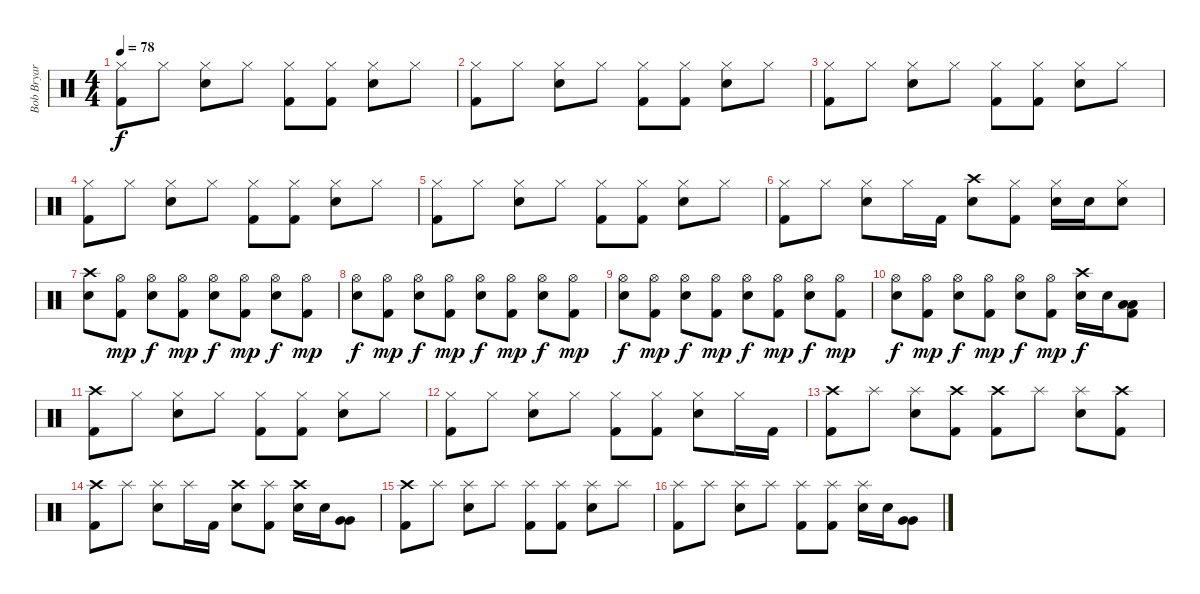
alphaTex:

\track ("Bob Bryar [Drums]" "Bob Bryar ") {instrument percussion}
\staff {score}
\articulation defaults
\ts (4 4)
\tempo 78
\clef neutral
\ks c
("Hi-Hat (closed)" "Kick (hit) 2").8{dy f} "Hi-Hat (closed)".8 ("Hi-Hat (closed)" "Electric Snare (hit)").8 "Hi-Hat (closed)".8 ("Hi-Hat (closed)" "Kick (hit) 2").8 ("Hi-Hat (closed)" "Kick (hit) 2").8 ("Hi-Hat (closed)" "Electric Snare (hit)").8 "Hi-Hat (closed)".8 |
("Hi-Hat (closed)" "Kick (hit) 2").8 "Hi-Hat (closed)".8 ("Hi-Hat (closed)" "Electric Snare (hit)").8 "Hi-Hat (closed)".8 ("Hi-Hat (closed)" "Kick (hit) 2").8 ("Hi-Hat (closed)" "Kick (hit) 2").8 ("Hi-Hat (closed)" "Electric Snare (hit)").8 "Hi-Hat (closed)".8 |
("Hi-Hat (closed)" "Kick (hit) 2").8 "Hi-Hat (closed)".8 ("Hi-Hat (closed)" "Electric Snare (hit)").8 "Hi-Hat (closed)".8 ("Hi-Hat (closed)" "Kick (hit) 2").8 ("Hi-Hat (closed)" "Kick (hit) 2").8 ("Hi-Hat (closed)" "Electric Snare (hit)").8 "Hi-Hat (closed)".8 |
("Hi-Hat (closed)" "Kick (hit) 2").8 "Hi-Hat (closed)".8 ("Hi-Hat (closed)" "Electric Snare (hit)").8 "Hi-Hat (closed)".8 ("Hi-Hat (closed)" "Kick (hit) 2").8 ("Hi-Hat (closed)" "Kick (hit) 2").8 ("Hi-Hat (closed)" "Electric Snare (hit)").8 "Hi-Hat (closed)".8 |
("Hi-Hat (closed)" "Kick (hit) 2").8 "Hi-Hat (closed)".8 ("Hi-Hat (closed)" "Electric Snare (hit)").8 "Hi-Hat (closed)".8 ("Hi-Hat (closed)" "Kick (hit) 2").8 ("Hi-Hat (closed)" "Kick (hit) 2").8 ("Hi-Hat (closed)" "Electric Snare (hit)").8 "Hi-Hat (closed)".8 |
("Hi-Hat (closed)" "Kick (hit) 2").8 "Hi-Hat (closed)".8 ("Hi-Hat (closed)" "Electric Snare (hit)").8 "Hi-Hat (closed)".16 "Kick (hit) 2".16 ("Crash high (hit)" "Electric Snare (hit)").8 ("Hi-Hat (closed)" "Kick (hit) 2").8 ("Hi-Hat (closed)" "Electric Snare (hit)").16 "Electric Snare (hit)".16 ("Hi-Hat (closed)" "Electric Snare (hit)").8 |
("Crash high (hit)" "Electric Snare (hit)").8 ("Hi-Hat (open)" "Kick (hit) 2").8{dy mp} ("Hi-Hat (open)" "Electric Snare (hit)").8{dy f} ("Hi-Hat (open)" "Kick (hit) 2").8{dy mp} ("Hi-Hat (open)" "Electric Snare (hit)").8{dy f} ("Hi-Hat (open)" "Kick (hit) 2").8{dy mp} ("Hi-Hat (open)" "Electric Snare (hit)").8{dy f} ("Hi-Hat (open)" "Kick (hit) 2").8{dy mp} |
("Hi-Hat (open)" "Electric Snare (hit)").8{dy f} ("Hi-Hat (open)" "Kick (hit) 2").8{dy mp} ("Hi-Hat (open)" "Electric Snare (hit)").8{dy f} ("Hi-Hat (open)" "Kick (hit) 2").8{dy mp} ("Hi-Hat (open)" "Electric Snare (hit)").8{dy f} ("Hi-Hat (open)" "Kick (hit) 2").8{dy mp} ("Hi-Hat (open)" "Electric Snare (hit)").8{dy f} ("Hi-Hat (open)" "Kick (hit) 2").8{dy mp} |
("Hi-Hat (open)" "Electric Snare (hit)").8{dy f} ("Hi-Hat (open)" "Kick (hit) 2").8{dy mp} ("Hi-Hat (open)" "Electric Snare (hit)").8{dy f} ("Hi-Hat (open)" "Kick (hit) 2").8{dy mp} ("Hi-Hat (open)" "Electric Snare (hit)").8{dy f} ("Hi-Hat (open)" "Kick (hit) 2").8{dy mp} ("Hi-Hat (open)" "Electric Snare (hit)").8{dy f} ("Hi-Hat (open)" "Kick (hit) 2").8{dy mp} |
("Hi-Hat (open)" "Electric Snare (hit)").8{dy f} ("Hi-Hat (open)" "Kick (hit) 2").8{dy mp} ("Hi-Hat (open)" "Electric Snare (hit)").8{dy f} ("Hi-Hat (open)" "Kick (hit) 2").8{dy mp} ("Hi-Hat (open)" "Electric Snare (hit)").8{dy f} ("Hi-Hat (open)" "Kick (hit) 2").8{dy mp} ("Crash high (hit)" "Electric Snare (hit)").16{dy f} "Electric Snare (hit)".16 ("Low Floor Tom (hit)" "Low Floor Tom (hit)" "Kick (hit) 2").8 |
("Crash high (hit)" "Kick (hit) 2").8 "Hi-Hat (closed)".8 ("Hi-Hat (closed)" "Electric Snare (hit)").8 "Hi-Hat (closed)".8 ("Hi-Hat (closed)" "Kick (hit) 2").8 ("Hi-Hat (closed)" "Kick (hit) 2").8 ("Hi-Hat (closed)" "Electric Snare (hit)").8 "Hi-Hat (closed)".8 |
("Hi-Hat (closed)" "Kick (hit) 2").8 "Hi-Hat (closed)".8 ("Hi-Hat (closed)" "Electric Snare (hit)").8 "Hi-Hat (closed)".8 ("Hi-Hat (closed)" "Kick (hit) 2").8 ("Hi-Hat (closed)" "Kick (hit) 2").8 ("Hi-Hat (closed)" "Electric Snare (hit)").8 "Hi-Hat (closed)".16 "Kick (hit) 2".16 |
("Crash high (hit)" "Kick (hit) 2").8 "Splash (hit)".8 ("Splash (hit)" "Electric Snare (hit)").8 ("Crash high (hit)" "Kick (hit) 2").8 ("Crash high (hit)" "Kick (hit) 2").8 "Splash (hit)".8 ("Splash (hit)" "Electric Snare (hit)").8 ("Crash high (hit)" "Kick (hit) 2").8 |
("Crash high (hit)" "Kick (hit) 2").8 "Splash (hit)".8 ("Splash (hit)" "Electric Snare (hit)").8 "Splash (hit)".16 "Kick (hit) 2".16 ("Crash high (hit)" "Electric Snare (hit)").8 ("Splash (hit)" "Kick (hit) 2").8 ("Crash high (hit)" "Electric Snare (hit)").16 "Electric Snare (hit)".16 ("Very Low Tom (hit)" "Very Low Tom (hit)").8 |
("Crash high (hit)" "Kick (hit) 2").8 "Splash (hit)".8 ("Splash (hit)" "Electric Snare (hit)").8 "Splash (hit)".8 ("Splash (hit)" "Kick (hit) 2").8 ("Splash (hit)" "Kick (hit) 2").8 ("Splash (hit)" "Electric Snare (hit)").8 "Splash (hit)".8 |
("Splash (hit)" "Kick (hit) 2").8 "Splash (hit)".8 ("Splash (hit)" "Electric Snare (hit)").8 "Splash (hit)".8 ("Splash (hit)" "Kick (hit) 2").8 ("Splash (hit)" "Kick (hit) 2").8 ("Splash (hit)" "Electric Snare (hit)").16 "Electric Snare (hit)".16 ("Very Low Tom (hit)" "Very Low Tom (hit)").8
